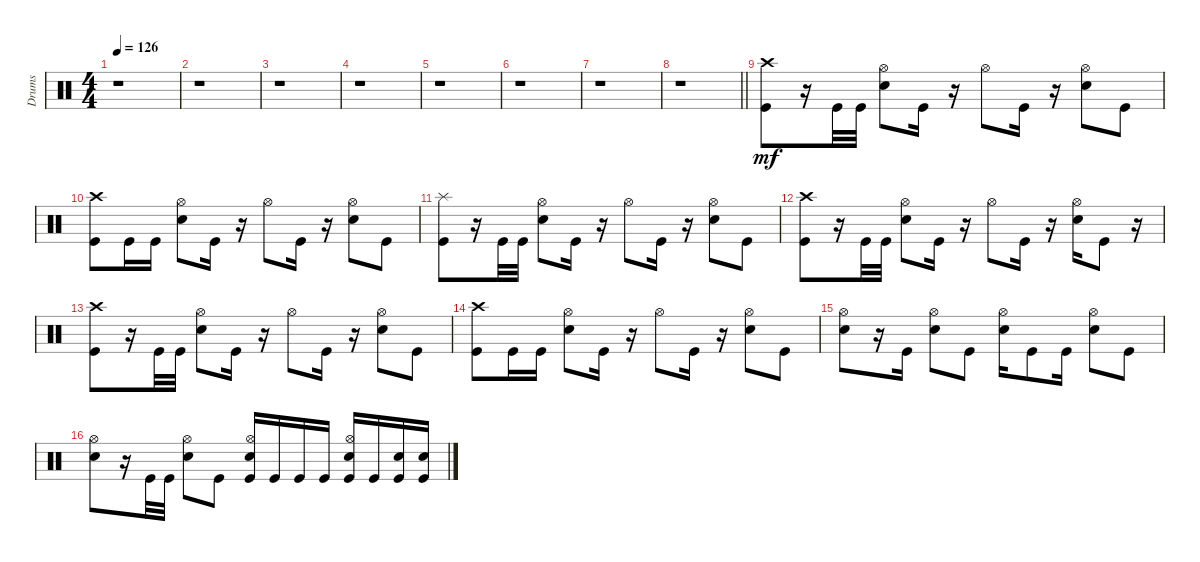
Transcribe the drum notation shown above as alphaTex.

\track ("Drums" "Drums") {instrument percussion bank 127}
\staff {score}
\articulation defaults
\ts (4 4)
\tempo 126
\clef neutral
\ks c
r.1{dy mf} |
r.1 |
r.1 |
r.1 |
r.1 |
r.1 |
r.1 |
\barLineRight lightlight
r.1 |
("Crash high (hit)" "Kick (hit)").8 r.16 "Kick (hit)".32 "Kick (hit)".32 ("Hi-Hat (open)" "Snare (hit) 2").8 "Kick (hit)".16 r.16 "Hi-Hat (open)".8 "Kick (hit)".16 r.16 ("Hi-Hat (open)" "Snare (hit) 2").8 "Kick (hit)".8 |
("Crash high (hit)" "Kick (hit)").8 "Kick (hit)".16 "Kick (hit)".16 ("Hi-Hat (open)" "Snare (hit) 2").8 "Kick (hit)".16 r.16 "Hi-Hat (open)".8 "Kick (hit)".16 r.16 ("Hi-Hat (open)" "Snare (hit) 2").8 "Kick (hit)".8 |
("Splash (hit)" "Kick (hit)").8 r.16 "Kick (hit)".32 "Kick (hit)".32 ("Hi-Hat (open)" "Snare (hit) 2").8 "Kick (hit)".16 r.16 "Hi-Hat (open)".8 "Kick (hit)".16 r.16 ("Hi-Hat (open)" "Snare (hit) 2").8 "Kick (hit)".8 |
("Crash high (hit)" "Kick (hit)").8 r.16 "Kick (hit)".32 "Kick (hit)".32 ("Hi-Hat (open)" "Snare (hit) 2").8 "Kick (hit)".16 r.16 "Hi-Hat (open)".8 "Kick (hit)".16 r.16 ("Hi-Hat (open)" "Snare (hit) 2").16 "Kick (hit)".8 r.16 |
("Crash high (hit)" "Kick (hit)").8 r.16 "Kick (hit)".32 "Kick (hit)".32 ("Hi-Hat (open)" "Snare (hit) 2").8 "Kick (hit)".16 r.16 "Hi-Hat (open)".8 "Kick (hit)".16 r.16 ("Hi-Hat (open)" "Snare (hit) 2").8 "Kick (hit)".8 |
("Crash high (hit)" "Kick (hit)").8 "Kick (hit)".16 "Kick (hit)".16 ("Hi-Hat (open)" "Snare (hit) 2").8 "Kick (hit)".16 r.16 "Hi-Hat (open)".8 "Kick (hit)".16 r.16 ("Hi-Hat (open)" "Snare (hit) 2").8 "Kick (hit)".8 |
("Hi-Hat (open)" "Snare (hit) 2").8 r.16 "Kick (hit)".16 ("Hi-Hat (open)" "Snare (hit) 2").8 "Kick (hit)".8 ("Hi-Hat (open)" "Snare (hit) 2").16 "Kick (hit)".8 "Kick (hit)".16 ("Hi-Hat (open)" "Snare (hit) 2").8 "Kick (hit)".8 |
("Hi-Hat (open)" "Snare (hit) 2").8 r.16 "Kick (hit)".32 "Kick (hit)".32 ("Hi-Hat (open)" "Snare (hit) 2").8 "Kick (hit)".8 ("Hi-Hat (open)" "Snare (hit) 2" "Kick (hit)").16 "Kick (hit)".16 "Kick (hit)".16 "Kick (hit)".16 ("Hi-Hat (open)" "Snare (hit) 2" "Kick (hit)").16 "Kick (hit)".16 ("Snare (hit) 2" "Kick (hit)").16 ("Snare (hit) 2" "Kick (hit)").16
